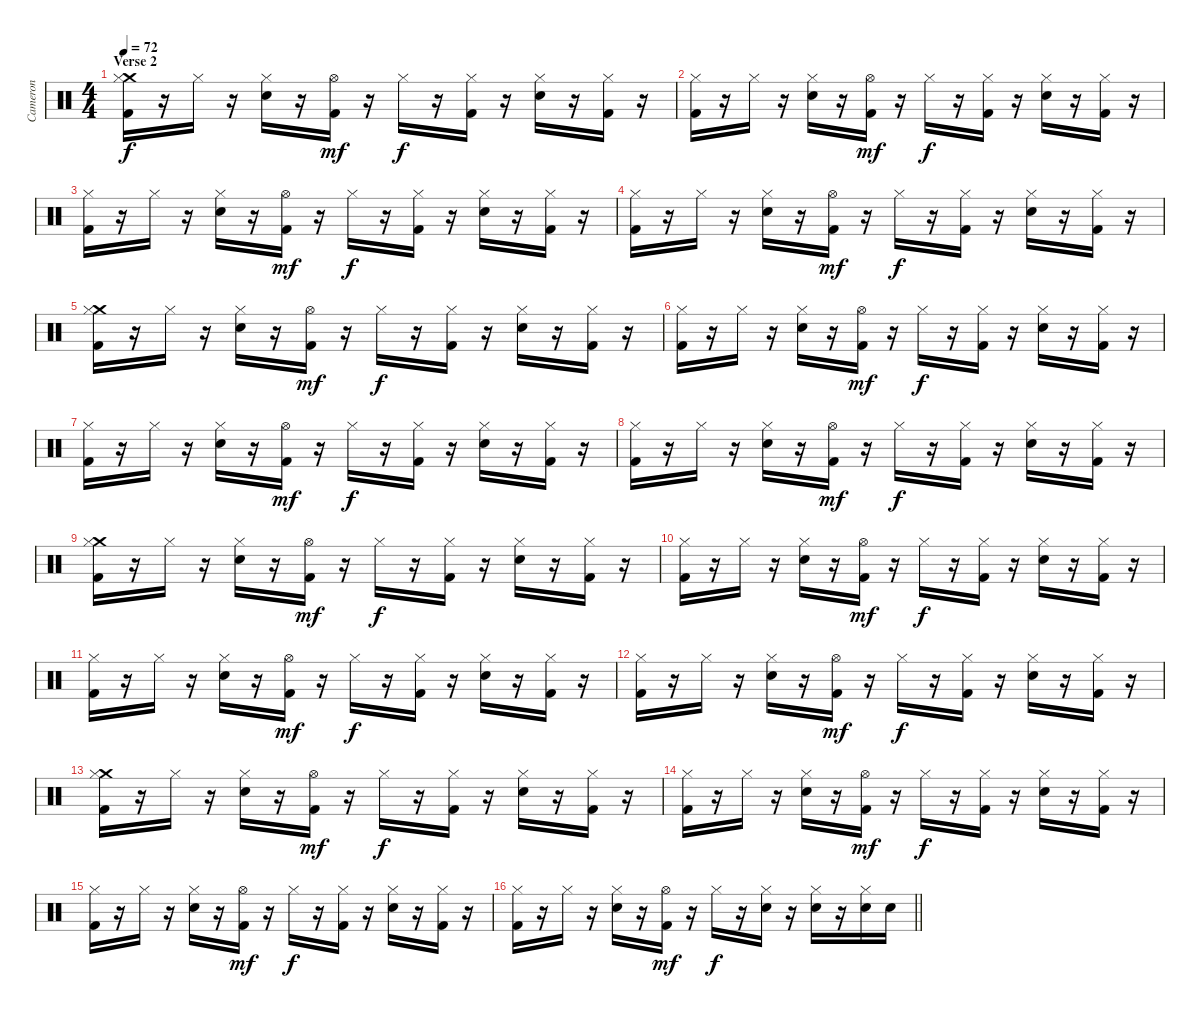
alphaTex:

\track ("Cameron" "Cameron") {instrument percussion}
\staff {score}
\articulation defaults
\ts (4 4)
\section ("" "Verse 2")
\tempo 72
\clef neutral
\ks c
("Crash medium (hit)" "Hi-Hat (closed)" "Kick (hit) 2").16{dy f} r.16 "Hi-Hat (closed)".16 r.16 ("Hi-Hat (closed)" "Electric Snare (hit)").16 r.16 ("Hi-Hat (open)" "Kick (hit) 2").16{dy mf} r.16 "Hi-Hat (closed)".16{dy f} r.16 ("Hi-Hat (closed)" "Kick (hit) 2").16 r.16 ("Hi-Hat (closed)" "Electric Snare (hit)").16 r.16 ("Hi-Hat (closed)" "Kick (hit) 2").16 r.16 |
("Hi-Hat (closed)" "Kick (hit) 2").16 r.16 "Hi-Hat (closed)".16 r.16 ("Hi-Hat (closed)" "Electric Snare (hit)").16 r.16 ("Hi-Hat (open)" "Kick (hit) 2").16{dy mf} r.16 "Hi-Hat (closed)".16{dy f} r.16 ("Hi-Hat (closed)" "Kick (hit) 2").16 r.16 ("Hi-Hat (closed)" "Electric Snare (hit)").16 r.16 ("Hi-Hat (closed)" "Kick (hit) 2").16 r.16 |
("Hi-Hat (closed)" "Kick (hit) 2").16 r.16 "Hi-Hat (closed)".16 r.16 ("Hi-Hat (closed)" "Electric Snare (hit)").16 r.16 ("Hi-Hat (open)" "Kick (hit) 2").16{dy mf} r.16 "Hi-Hat (closed)".16{dy f} r.16 ("Hi-Hat (closed)" "Kick (hit) 2").16 r.16 ("Hi-Hat (closed)" "Electric Snare (hit)").16 r.16 ("Hi-Hat (closed)" "Kick (hit) 2").16 r.16 |
("Hi-Hat (closed)" "Kick (hit) 2").16 r.16 "Hi-Hat (closed)".16 r.16 ("Hi-Hat (closed)" "Electric Snare (hit)").16 r.16 ("Hi-Hat (open)" "Kick (hit) 2").16{dy mf} r.16 "Hi-Hat (closed)".16{dy f} r.16 ("Hi-Hat (closed)" "Kick (hit) 2").16 r.16 ("Hi-Hat (closed)" "Electric Snare (hit)").16 r.16 ("Hi-Hat (closed)" "Kick (hit) 2").16 r.16 |
("Crash medium (hit)" "Hi-Hat (closed)" "Kick (hit) 2").16 r.16 "Hi-Hat (closed)".16 r.16 ("Hi-Hat (closed)" "Electric Snare (hit)").16 r.16 ("Hi-Hat (open)" "Kick (hit) 2").16{dy mf} r.16 "Hi-Hat (closed)".16{dy f} r.16 ("Hi-Hat (closed)" "Kick (hit) 2").16 r.16 ("Hi-Hat (closed)" "Electric Snare (hit)").16 r.16 ("Hi-Hat (closed)" "Kick (hit) 2").16 r.16 |
("Hi-Hat (closed)" "Kick (hit) 2").16 r.16 "Hi-Hat (closed)".16 r.16 ("Hi-Hat (closed)" "Electric Snare (hit)").16 r.16 ("Hi-Hat (open)" "Kick (hit) 2").16{dy mf} r.16 "Hi-Hat (closed)".16{dy f} r.16 ("Hi-Hat (closed)" "Kick (hit) 2").16 r.16 ("Hi-Hat (closed)" "Electric Snare (hit)").16 r.16 ("Hi-Hat (closed)" "Kick (hit) 2").16 r.16 |
("Hi-Hat (closed)" "Kick (hit) 2").16 r.16 "Hi-Hat (closed)".16 r.16 ("Hi-Hat (closed)" "Electric Snare (hit)").16 r.16 ("Hi-Hat (open)" "Kick (hit) 2").16{dy mf} r.16 "Hi-Hat (closed)".16{dy f} r.16 ("Hi-Hat (closed)" "Kick (hit) 2").16 r.16 ("Hi-Hat (closed)" "Electric Snare (hit)").16 r.16 ("Hi-Hat (closed)" "Kick (hit) 2").16 r.16 |
("Hi-Hat (closed)" "Kick (hit) 2").16 r.16 "Hi-Hat (closed)".16 r.16 ("Hi-Hat (closed)" "Electric Snare (hit)").16 r.16 ("Hi-Hat (open)" "Kick (hit) 2").16{dy mf} r.16 "Hi-Hat (closed)".16{dy f} r.16 ("Hi-Hat (closed)" "Kick (hit) 2").16 r.16 ("Hi-Hat (closed)" "Electric Snare (hit)").16 r.16 ("Hi-Hat (closed)" "Kick (hit) 2").16 r.16 |
("Crash medium (hit)" "Hi-Hat (closed)" "Kick (hit) 2").16 r.16 "Hi-Hat (closed)".16 r.16 ("Hi-Hat (closed)" "Electric Snare (hit)").16 r.16 ("Hi-Hat (open)" "Kick (hit) 2").16{dy mf} r.16 "Hi-Hat (closed)".16{dy f} r.16 ("Hi-Hat (closed)" "Kick (hit) 2").16 r.16 ("Hi-Hat (closed)" "Electric Snare (hit)").16 r.16 ("Hi-Hat (closed)" "Kick (hit) 2").16 r.16 |
("Hi-Hat (closed)" "Kick (hit) 2").16 r.16 "Hi-Hat (closed)".16 r.16 ("Hi-Hat (closed)" "Electric Snare (hit)").16 r.16 ("Hi-Hat (open)" "Kick (hit) 2").16{dy mf} r.16 "Hi-Hat (closed)".16{dy f} r.16 ("Hi-Hat (closed)" "Kick (hit) 2").16 r.16 ("Hi-Hat (closed)" "Electric Snare (hit)").16 r.16 ("Hi-Hat (closed)" "Kick (hit) 2").16 r.16 |
("Hi-Hat (closed)" "Kick (hit) 2").16 r.16 "Hi-Hat (closed)".16 r.16 ("Hi-Hat (closed)" "Electric Snare (hit)").16 r.16 ("Hi-Hat (open)" "Kick (hit) 2").16{dy mf} r.16 "Hi-Hat (closed)".16{dy f} r.16 ("Hi-Hat (closed)" "Kick (hit) 2").16 r.16 ("Hi-Hat (closed)" "Electric Snare (hit)").16 r.16 ("Hi-Hat (closed)" "Kick (hit) 2").16 r.16 |
("Hi-Hat (closed)" "Kick (hit) 2").16 r.16 "Hi-Hat (closed)".16 r.16 ("Hi-Hat (closed)" "Electric Snare (hit)").16 r.16 ("Hi-Hat (open)" "Kick (hit) 2").16{dy mf} r.16 "Hi-Hat (closed)".16{dy f} r.16 ("Hi-Hat (closed)" "Kick (hit) 2").16 r.16 ("Hi-Hat (closed)" "Electric Snare (hit)").16 r.16 ("Hi-Hat (closed)" "Kick (hit) 2").16 r.16 |
("Crash medium (hit)" "Hi-Hat (closed)" "Kick (hit) 2").16 r.16 "Hi-Hat (closed)".16 r.16 ("Hi-Hat (closed)" "Electric Snare (hit)").16 r.16 ("Hi-Hat (open)" "Kick (hit) 2").16{dy mf} r.16 "Hi-Hat (closed)".16{dy f} r.16 ("Hi-Hat (closed)" "Kick (hit) 2").16 r.16 ("Hi-Hat (closed)" "Electric Snare (hit)").16 r.16 ("Hi-Hat (closed)" "Kick (hit) 2").16 r.16 |
("Hi-Hat (closed)" "Kick (hit) 2").16 r.16 "Hi-Hat (closed)".16 r.16 ("Hi-Hat (closed)" "Electric Snare (hit)").16 r.16 ("Hi-Hat (open)" "Kick (hit) 2").16{dy mf} r.16 "Hi-Hat (closed)".16{dy f} r.16 ("Hi-Hat (closed)" "Kick (hit) 2").16 r.16 ("Hi-Hat (closed)" "Electric Snare (hit)").16 r.16 ("Hi-Hat (closed)" "Kick (hit) 2").16 r.16 |
("Hi-Hat (closed)" "Kick (hit) 2").16 r.16 "Hi-Hat (closed)".16 r.16 ("Hi-Hat (closed)" "Electric Snare (hit)").16 r.16 ("Hi-Hat (open)" "Kick (hit) 2").16{dy mf} r.16 "Hi-Hat (closed)".16{dy f} r.16 ("Hi-Hat (closed)" "Kick (hit) 2").16 r.16 ("Hi-Hat (closed)" "Electric Snare (hit)").16 r.16 ("Hi-Hat (closed)" "Kick (hit) 2").16 r.16 |
\barLineRight lightlight
("Hi-Hat (closed)" "Kick (hit) 2").16 r.16 "Hi-Hat (closed)".16 r.16 ("Hi-Hat (closed)" "Electric Snare (hit)").16 r.16 ("Hi-Hat (open)" "Kick (hit) 2").16{dy mf} r.16 "Hi-Hat (closed)".16{dy f} r.16 ("Hi-Hat (closed)" "Electric Snare (hit)").16 r.16 ("Hi-Hat (closed)" "Electric Snare (hit)").16 r.16 ("Hi-Hat (closed)" "Electric Snare (hit)").16 "Electric Snare (hit)".16
